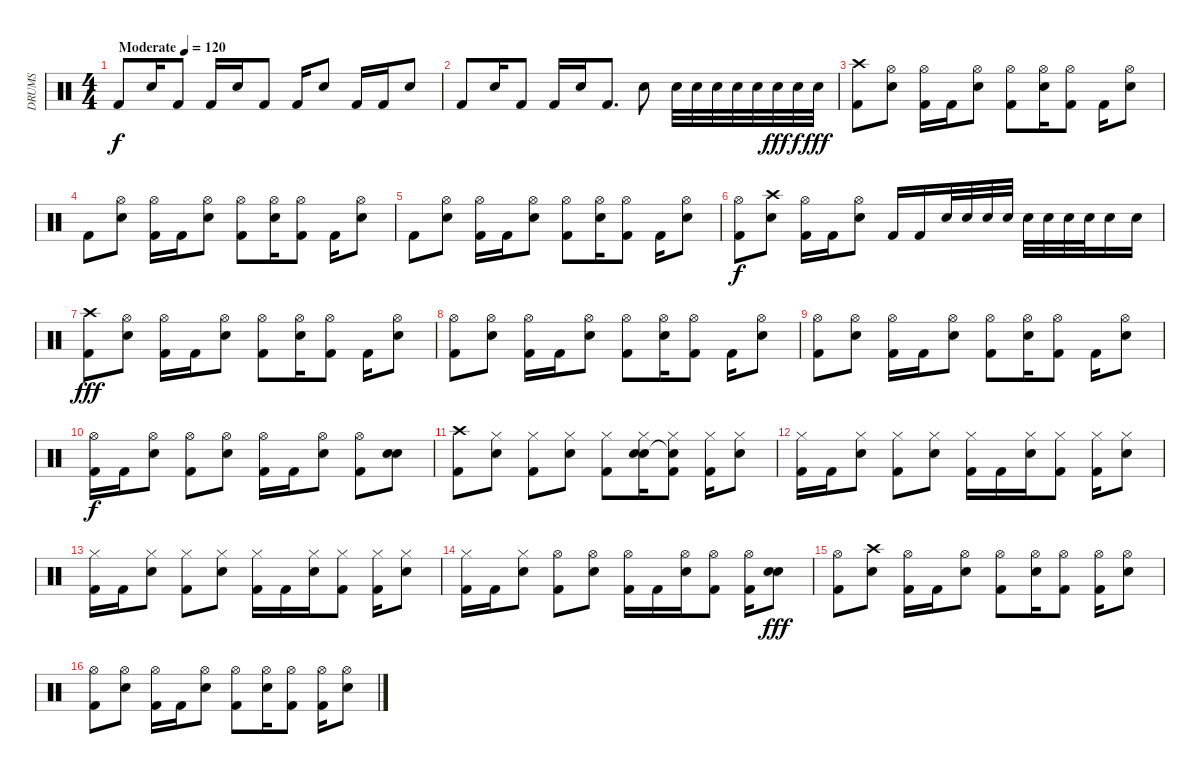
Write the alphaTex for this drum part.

\track ("DRUMS" "DRUMS") {instrument percussion}
\staff {score}
\articulation defaults
\ts (4 4)
\tempo (120 "Moderate")
\clef neutral
\ks c "Kick (hit) 2".8{dy f} "Snare (hit) 2".16 "Kick (hit) 2".8 "Kick (hit) 2".16 "Snare (hit) 2".16 "Kick (hit) 2".8 "Kick (hit) 2".16 "Snare (hit) 2".8 "Kick (hit) 2".16 "Kick (hit) 2".16 "Snare (hit) 2".8
|
"Kick (hit) 2".8 "Snare (hit) 2".16 "Kick (hit) 2".8 "Kick (hit) 2".16 "Snare (hit) 2".16 "Kick (hit) 2".8{d} "Snare (hit) 2".8 "Snare (hit) 2".32 "Snare (hit) 2".32 "Snare (hit) 2".32 "Snare (hit) 2".32 "Snare (hit) 2".32 "Snare (hit) 2".32{dy fff} "Snare (hit) 2".32{dy f} "Snare (hit) 2".32{dy fff} |
("Crash high (hit)" "Kick (hit) 2").8 ("Hi-Hat (open)" "Snare (hit) 2").8 ("Hi-Hat (open)" "Kick (hit) 2").16 "Kick (hit) 2".16 ("Hi-Hat (open)" "Snare (hit) 2").8 ("Hi-Hat (open)" "Kick (hit) 2").8 ("Hi-Hat (open)" "Snare (hit) 2").16 ("Hi-Hat (open)" "Kick (hit) 2").8 "Kick (hit) 2".16 ("Hi-Hat (open)" "Snare (hit) 2").8 |
"Kick (hit) 2".8 ("Hi-Hat (open)" "Snare (hit) 2").8 ("Hi-Hat (open)" "Kick (hit) 2").16 "Kick (hit) 2".16 ("Hi-Hat (open)" "Snare (hit) 2").8 ("Hi-Hat (open)" "Kick (hit) 2").8 ("Hi-Hat (open)" "Snare (hit) 2").16 ("Hi-Hat (open)" "Kick (hit) 2").8 "Kick (hit) 2".16 ("Hi-Hat (open)" "Snare (hit) 2").8 |
"Kick (hit) 2".8 ("Hi-Hat (open)" "Snare (hit) 2").8 ("Hi-Hat (open)" "Kick (hit) 2").16 "Kick (hit) 2".16 ("Hi-Hat (open)" "Snare (hit) 2").8 ("Hi-Hat (open)" "Kick (hit) 2").8 ("Hi-Hat (open)" "Snare (hit) 2").16 ("Hi-Hat (open)" "Kick (hit) 2").8 "Kick (hit) 2".16 ("Hi-Hat (open)" "Snare (hit) 2").8 |
("Hi-Hat (open)" "Kick (hit) 2").8{dy f} ("Crash high (hit)" "Snare (hit) 2").8 ("Hi-Hat (open)" "Kick (hit) 2").16 "Kick (hit) 2".16 ("Hi-Hat (open)" "Snare (hit) 2").8 "Kick (hit) 2".16 "Kick (hit) 2".16 "Snare (hit) 2".32 "Snare (hit) 2".32 "Snare (hit) 2".32 "Snare (hit) 2".32 "Snare (hit) 2".32 "Snare (hit) 2".32 "Snare (hit) 2".32 "Snare (hit) 2".32 "Snare (hit) 2".16 "Snare (hit) 2".16 |
("Crash high (hit)" "Kick (hit) 2").8{dy fff} ("Hi-Hat (open)" "Snare (hit) 2").8 ("Hi-Hat (open)" "Kick (hit) 2").16 "Kick (hit) 2".16 ("Hi-Hat (open)" "Snare (hit) 2").8 ("Hi-Hat (open)" "Kick (hit) 2").8 ("Hi-Hat (open)" "Snare (hit) 2").16 ("Hi-Hat (open)" "Kick (hit) 2").8 "Kick (hit) 2".16 ("Hi-Hat (open)" "Snare (hit) 2").8 |
("Hi-Hat (open)" "Kick (hit) 2").8 ("Hi-Hat (open)" "Snare (hit) 2").8 ("Hi-Hat (open)" "Kick (hit) 2").16 "Kick (hit) 2".16 ("Hi-Hat (open)" "Snare (hit) 2").8 ("Hi-Hat (open)" "Kick (hit) 2").8 ("Hi-Hat (open)" "Snare (hit) 2").16 ("Hi-Hat (open)" "Kick (hit) 2").8 "Kick (hit) 2".16 ("Hi-Hat (open)" "Snare (hit) 2").8 |
("Hi-Hat (open)" "Kick (hit) 2").8 ("Hi-Hat (open)" "Snare (hit) 2").8 ("Hi-Hat (open)" "Kick (hit) 2").16 "Kick (hit) 2".16 ("Hi-Hat (open)" "Snare (hit) 2").8 ("Hi-Hat (open)" "Kick (hit) 2").8 ("Hi-Hat (open)" "Snare (hit) 2").16 ("Hi-Hat (open)" "Kick (hit) 2").8 "Kick (hit) 2".16 ("Hi-Hat (open)" "Snare (hit) 2").8 |
("Hi-Hat (open)" "Kick (hit) 2").16{dy f} "Kick (hit) 2".16 ("Hi-Hat (open)" "Snare (hit) 2").8 ("Hi-Hat (open)" "Kick (hit) 2").8 ("Hi-Hat (open)" "Snare (hit) 2").8 ("Hi-Hat (open)" "Kick (hit) 2").16 "Kick (hit) 2".16 ("Hi-Hat (open)" "Snare (hit) 2").8 ("Hi-Hat (open)" "Kick (hit) 2").8 ("Snare (hit) 2" "Snare (hit) 2").8 |
("Crash high (hit)" "Kick (hit) 2").8 ("Hi-Hat (closed)" "Snare (hit) 2").8 ("Hi-Hat (closed)" "Kick (hit) 2").8 ("Hi-Hat (closed)" "Snare (hit) 2").8 ("Hi-Hat (closed)" "Kick (hit) 2").8 ("Hi-Hat (closed)" "Snare (hit) 2" "Snare (hit)").16 ("Hi-Hat (closed)" "Snare (hit)"{t} "Kick (hit) 2").8 ("Hi-Hat (closed)" "Kick (hit) 2").16 ("Hi-Hat (closed)" "Snare (hit) 2").8 |
("Hi-Hat (closed)" "Kick (hit) 2").16 "Kick (hit) 2".16 ("Hi-Hat (closed)" "Snare (hit) 2").8 ("Hi-Hat (closed)" "Kick (hit) 2").8 ("Hi-Hat (closed)" "Snare (hit) 2").8 ("Hi-Hat (closed)" "Kick (hit) 2").16 "Kick (hit) 2".16 ("Hi-Hat (closed)" "Snare (hit) 2").16 ("Hi-Hat (closed)" "Kick (hit) 2").8 ("Hi-Hat (closed)" "Kick (hit) 2").16 ("Hi-Hat (closed)" "Snare (hit) 2").8 |
("Hi-Hat (closed)" "Kick (hit) 2").16 "Kick (hit) 2".16 ("Hi-Hat (closed)" "Snare (hit) 2").8 ("Hi-Hat (closed)" "Kick (hit) 2").8 ("Hi-Hat (closed)" "Snare (hit) 2").8 ("Hi-Hat (closed)" "Kick (hit) 2").16 "Kick (hit) 2".16 ("Hi-Hat (closed)" "Snare (hit) 2").16 ("Hi-Hat (closed)" "Kick (hit) 2").8 ("Hi-Hat (closed)" "Kick (hit) 2").16 ("Hi-Hat (closed)" "Snare (hit) 2").8 |
("Hi-Hat (closed)" "Kick (hit) 2").16 "Kick (hit) 2".16 ("Hi-Hat (closed)" "Snare (hit) 2").8 ("Hi-Hat (open)" "Kick (hit) 2").8 ("Hi-Hat (open)" "Snare (hit) 2").8 ("Hi-Hat (open)" "Kick (hit) 2").16 "Kick (hit) 2".16 ("Hi-Hat (open)" "Snare (hit) 2").16 ("Hi-Hat (open)" "Kick (hit) 2").8 ("Hi-Hat (open)" "Kick (hit) 2").16 ("Snare (hit) 2" "Snare (hit) 2").8{dy fff} |
("Hi-Hat (open)" "Kick (hit) 2").8 ("Crash high (hit)" "Snare (hit) 2").8 ("Hi-Hat (open)" "Kick (hit) 2").16 "Kick (hit) 2".16 ("Hi-Hat (open)" "Snare (hit) 2").8 ("Hi-Hat (open)" "Kick (hit) 2").8 ("Hi-Hat (open)" "Snare (hit) 2").16 ("Hi-Hat (open)" "Kick (hit) 2").8 ("Hi-Hat (open)" "Kick (hit) 2").16 ("Hi-Hat (open)" "Snare (hit) 2").8 |
("Hi-Hat (open)" "Kick (hit) 2").8 ("Hi-Hat (open)" "Snare (hit) 2").8 ("Hi-Hat (open)" "Kick (hit) 2").16 "Kick (hit) 2".16 ("Hi-Hat (open)" "Snare (hit) 2").8 ("Hi-Hat (open)" "Kick (hit) 2").8 ("Hi-Hat (open)" "Snare (hit) 2").16 ("Hi-Hat (open)" "Kick (hit) 2").8 ("Hi-Hat (open)" "Kick (hit) 2").16 ("Hi-Hat (open)" "Snare (hit) 2").8
